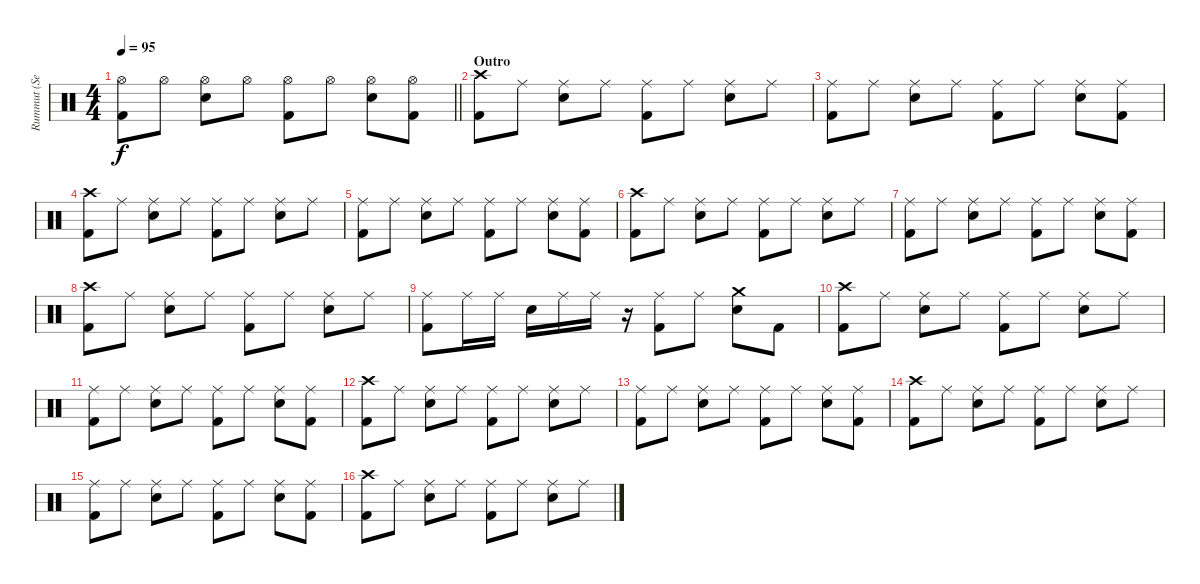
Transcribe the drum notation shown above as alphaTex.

\track ("Rummut (Seppo Pohjolainen)" "Rummut (Se") {instrument percussion}
\staff {score}
\articulation defaults
\ts (4 4)
\tempo 95
\clef neutral
\barLineRight lightlight
\ks c
("Hi-Hat (open)" "Kick (hit) 2").8{dy f} "Hi-Hat (open)".8 ("Hi-Hat (open)" "Snare (hit) 2").8 "Hi-Hat (open)".8 ("Hi-Hat (open)" "Kick (hit) 2").8 "Hi-Hat (open)".8 ("Hi-Hat (open)" "Snare (hit) 2").8 ("Hi-Hat (open)" "Kick (hit) 2").8 |
\section ("" "Outro")
("Crash high (hit)" "Kick (hit) 2").8 "Ride (middle)".8 ("Ride (middle)" "Snare (hit) 2").8 "Ride (middle)".8 ("Ride (middle)" "Kick (hit) 2").8 "Ride (middle)".8 ("Ride (middle)" "Snare (hit) 2").8 "Ride (middle)".8 |
("Ride (middle)" "Kick (hit) 2").8 "Ride (middle)".8 ("Ride (middle)" "Snare (hit) 2").8 "Ride (middle)".8 ("Ride (middle)" "Kick (hit) 2").8 "Ride (middle)".8 ("Ride (middle)" "Snare (hit) 2").8 ("Ride (middle)" "Kick (hit) 2").8 |
("Crash high (hit)" "Kick (hit) 2").8 "Ride (middle)".8 ("Ride (middle)" "Snare (hit) 2").8 "Ride (middle)".8 ("Ride (middle)" "Kick (hit) 2").8 "Ride (middle)".8 ("Ride (middle)" "Snare (hit) 2").8 "Ride (middle)".8 |
("Ride (middle)" "Kick (hit) 2").8 "Ride (middle)".8 ("Ride (middle)" "Snare (hit) 2").8 "Ride (middle)".8 ("Ride (middle)" "Kick (hit) 2").8 "Ride (middle)".8 ("Ride (middle)" "Snare (hit) 2").8 ("Ride (middle)" "Kick (hit) 2").8 |
("Crash high (hit)" "Kick (hit) 2").8 "Ride (middle)".8 ("Ride (middle)" "Snare (hit) 2").8 "Ride (middle)".8 ("Ride (middle)" "Kick (hit) 2").8 "Ride (middle)".8 ("Ride (middle)" "Snare (hit) 2").8 "Ride (middle)".8 |
("Ride (middle)" "Kick (hit) 2").8 "Ride (middle)".8 ("Ride (middle)" "Snare (hit) 2").8 "Ride (middle)".8 ("Ride (middle)" "Kick (hit) 2").8 "Ride (middle)".8 ("Ride (middle)" "Snare (hit) 2").8 ("Ride (middle)" "Kick (hit) 2").8 |
("Crash high (hit)" "Kick (hit) 2").8 "Ride (middle)".8 ("Ride (middle)" "Snare (hit) 2").8 "Ride (middle)".8 ("Ride (middle)" "Kick (hit) 2").8 "Ride (middle)".8 ("Ride (middle)" "Snare (hit) 2").8 "Ride (middle)".8 |
("Ride (middle)" "Kick (hit) 2").8 "Ride (middle)".16 "Ride (middle)".16 "Snare (hit) 2".16 "Ride (middle)".16 "Ride (middle)".16 r.16 ("Ride (middle)" "Kick (hit) 2").8 "Ride (middle)".8 ("Crash medium (hit)" "Snare (hit) 2").8 "Kick (hit) 2".8 |
("Crash high (hit)" "Kick (hit) 2").8 "Ride (middle)".8 ("Ride (middle)" "Snare (hit) 2").8 "Ride (middle)".8 ("Ride (middle)" "Kick (hit) 2").8 "Ride (middle)".8 ("Ride (middle)" "Snare (hit) 2").8 "Ride (middle)".8 |
("Ride (middle)" "Kick (hit) 2").8 "Ride (middle)".8 ("Ride (middle)" "Snare (hit) 2").8 "Ride (middle)".8 ("Ride (middle)" "Kick (hit) 2").8 "Ride (middle)".8 ("Ride (middle)" "Snare (hit) 2").8 ("Ride (middle)" "Kick (hit) 2").8 |
("Crash high (hit)" "Kick (hit) 2").8 "Ride (middle)".8 ("Ride (middle)" "Snare (hit) 2").8 "Ride (middle)".8 ("Ride (middle)" "Kick (hit) 2").8 "Ride (middle)".8 ("Ride (middle)" "Snare (hit) 2").8 "Ride (middle)".8 |
("Ride (middle)" "Kick (hit) 2").8 "Ride (middle)".8 ("Ride (middle)" "Snare (hit) 2").8 "Ride (middle)".8 ("Ride (middle)" "Kick (hit) 2").8 "Ride (middle)".8 ("Ride (middle)" "Snare (hit) 2").8 ("Ride (middle)" "Kick (hit) 2").8 |
("Crash high (hit)" "Kick (hit) 2").8 "Ride (middle)".8 ("Ride (middle)" "Snare (hit) 2").8 "Ride (middle)".8 ("Ride (middle)" "Kick (hit) 2").8 "Ride (middle)".8 ("Ride (middle)" "Snare (hit) 2").8 "Ride (middle)".8 |
("Ride (middle)" "Kick (hit) 2").8 "Ride (middle)".8 ("Ride (middle)" "Snare (hit) 2").8 "Ride (middle)".8 ("Ride (middle)" "Kick (hit) 2").8 "Ride (middle)".8 ("Ride (middle)" "Snare (hit) 2").8 ("Ride (middle)" "Kick (hit) 2").8 |
("Crash high (hit)" "Kick (hit) 2").8 "Ride (middle)".8 ("Ride (middle)" "Snare (hit) 2").8 "Ride (middle)".8 ("Ride (middle)" "Kick (hit) 2").8 "Ride (middle)".8 ("Ride (middle)" "Snare (hit) 2").8 "Ride (middle)".8
